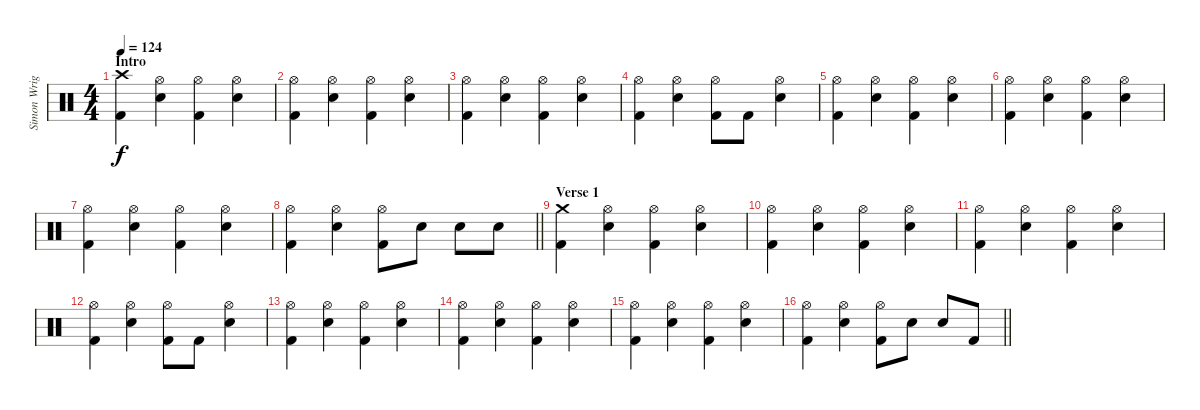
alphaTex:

\track ("Simon Wright" "Simon Wrig") {instrument percussion}
\staff {score}
\articulation defaults
\ts (4 4)
\section ("" "Intro")
\tempo 124
\clef neutral
\ks c
("Crash high (hit)" "Kick (hit) 2").4{dy f} ("Hi-Hat (open)" "Electric Snare (hit)").4 ("Hi-Hat (open)" "Kick (hit) 2").4 ("Hi-Hat (open)" "Electric Snare (hit)").4 |
("Hi-Hat (open)" "Kick (hit) 2").4 ("Hi-Hat (open)" "Electric Snare (hit)").4 ("Hi-Hat (open)" "Kick (hit) 2").4 ("Hi-Hat (open)" "Electric Snare (hit)").4 |
("Hi-Hat (open)" "Kick (hit) 2").4 ("Hi-Hat (open)" "Electric Snare (hit)").4 ("Hi-Hat (open)" "Kick (hit) 2").4 ("Hi-Hat (open)" "Electric Snare (hit)").4 |
("Hi-Hat (open)" "Kick (hit) 2").4 ("Hi-Hat (open)" "Electric Snare (hit)").4 ("Hi-Hat (open)" "Kick (hit) 2").8 "Kick (hit) 2".8 ("Hi-Hat (open)" "Electric Snare (hit)").4 |
("Hi-Hat (open)" "Kick (hit) 2").4 ("Hi-Hat (open)" "Electric Snare (hit)").4 ("Hi-Hat (open)" "Kick (hit) 2").4 ("Hi-Hat (open)" "Electric Snare (hit)").4 |
("Hi-Hat (open)" "Kick (hit) 2").4 ("Hi-Hat (open)" "Electric Snare (hit)").4 ("Hi-Hat (open)" "Kick (hit) 2").4 ("Hi-Hat (open)" "Electric Snare (hit)").4 |
("Hi-Hat (open)" "Kick (hit) 2").4 ("Hi-Hat (open)" "Electric Snare (hit)").4 ("Hi-Hat (open)" "Kick (hit) 2").4 ("Hi-Hat (open)" "Electric Snare (hit)").4 |
\barLineRight lightlight
("Hi-Hat (open)" "Kick (hit) 2").4 ("Hi-Hat (open)" "Electric Snare (hit)").4 ("Hi-Hat (open)" "Kick (hit) 2").8 "Electric Snare (hit)".8 "Electric Snare (hit)".8 "Electric Snare (hit)".8 |
\section ("" "Verse 1")
("Crash medium (hit)" "Kick (hit) 2").4 ("Hi-Hat (open)" "Electric Snare (hit)").4 ("Hi-Hat (open)" "Kick (hit) 2").4 ("Hi-Hat (open)" "Electric Snare (hit)").4 |
("Hi-Hat (open)" "Kick (hit) 2").4 ("Hi-Hat (open)" "Electric Snare (hit)").4 ("Hi-Hat (open)" "Kick (hit) 2").4 ("Hi-Hat (open)" "Electric Snare (hit)").4 |
("Hi-Hat (open)" "Kick (hit) 2").4 ("Hi-Hat (open)" "Electric Snare (hit)").4 ("Hi-Hat (open)" "Kick (hit) 2").4 ("Hi-Hat (open)" "Electric Snare (hit)").4 |
("Hi-Hat (open)" "Kick (hit) 2").4 ("Hi-Hat (open)" "Electric Snare (hit)").4 ("Hi-Hat (open)" "Kick (hit) 2").8 "Kick (hit) 2".8 ("Hi-Hat (open)" "Electric Snare (hit)").4 |
("Hi-Hat (open)" "Kick (hit) 2").4 ("Hi-Hat (open)" "Electric Snare (hit)").4 ("Hi-Hat (open)" "Kick (hit) 2").4 ("Hi-Hat (open)" "Electric Snare (hit)").4 |
("Hi-Hat (open)" "Kick (hit) 2").4 ("Hi-Hat (open)" "Electric Snare (hit)").4 ("Hi-Hat (open)" "Kick (hit) 2").4 ("Hi-Hat (open)" "Electric Snare (hit)").4 |
("Hi-Hat (open)" "Kick (hit) 2").4 ("Hi-Hat (open)" "Electric Snare (hit)").4 ("Hi-Hat (open)" "Kick (hit) 2").4 ("Hi-Hat (open)" "Electric Snare (hit)").4 |
\barLineRight lightlight
("Hi-Hat (open)" "Kick (hit) 2").4 ("Hi-Hat (open)" "Electric Snare (hit)").4 ("Hi-Hat (open)" "Kick (hit) 2").8 "Electric Snare (hit)".8 "Electric Snare (hit)".8 "Kick (hit) 2".8
